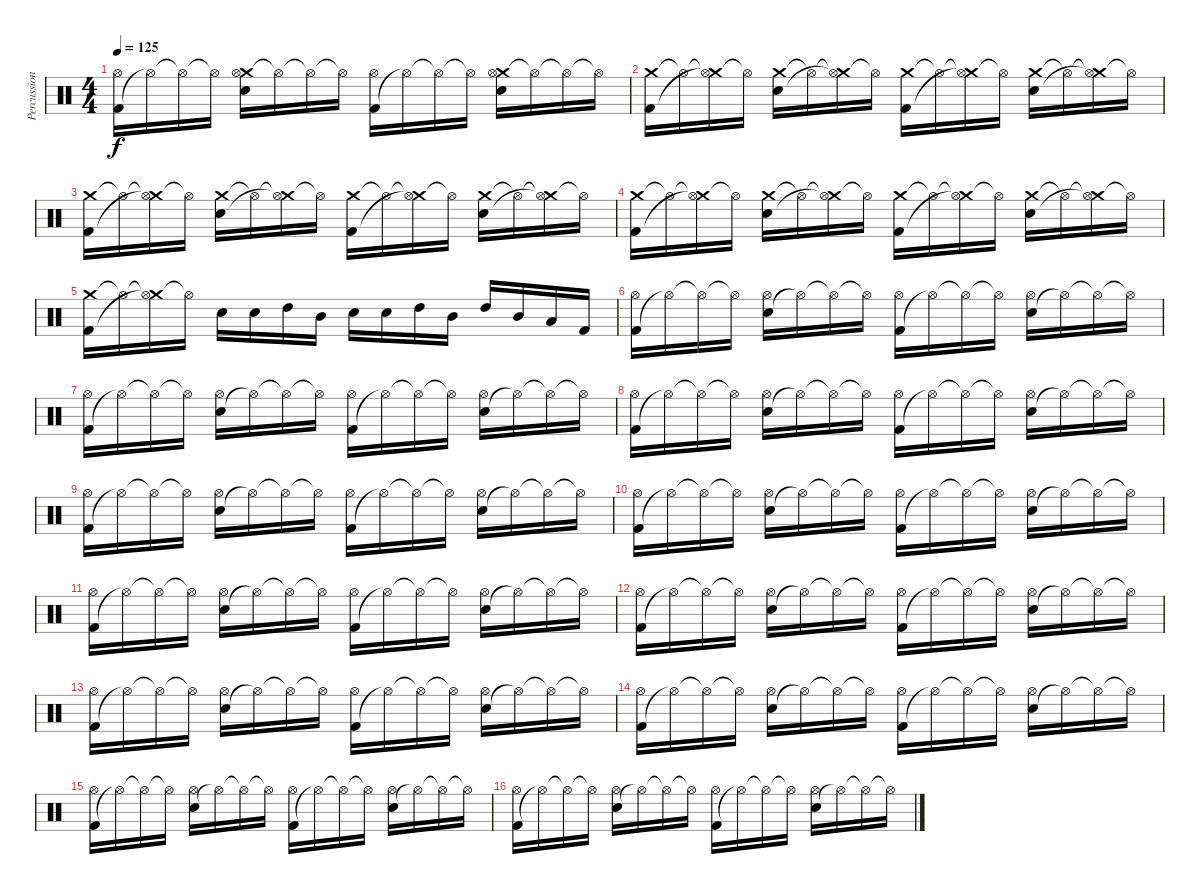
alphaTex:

\track ("Percussions" "Percussion") {instrument percussion}
\staff {score}
\articulation defaults
\ts (4 4)
\tempo 125
\clef neutral
\ks c
("Kick (hit) 2" "Hi-Hat (open)").16{dy f} "Hi-Hat (open)"{t}.16 "Hi-Hat (open)"{t}.16 "Hi-Hat (open)"{t}.16 ("Crash medium (hit)" "Electric Snare (hit)" "Hi-Hat (open)").16 "Hi-Hat (open)"{t}.16 "Hi-Hat (open)"{t}.16 "Hi-Hat (open)"{t}.16 ("Kick (hit) 2" "Hi-Hat (open)").16 "Hi-Hat (open)"{t}.16 "Hi-Hat (open)"{t}.16 "Hi-Hat (open)"{t}.16 ("Crash medium (hit)" "Electric Snare (hit)" "Hi-Hat (open)").16 "Hi-Hat (open)"{t}.16 "Hi-Hat (open)"{t}.16 "Hi-Hat (open)"{t}.16 |
("Crash medium (hit)" "Kick (hit) 2").16 "Hi-Hat (open)"{t}.16 ("Crash medium (hit)"{t} "Hi-Hat (open)"{t}).16 "Hi-Hat (open)"{t}.16 ("Crash medium (hit)" "Electric Snare (hit)").16 "Hi-Hat (open)"{t}.16 ("Crash medium (hit)"{t} "Hi-Hat (open)"{t}).16 "Hi-Hat (open)"{t}.16 ("Crash medium (hit)" "Kick (hit) 2").16 "Hi-Hat (open)"{t}.16 ("Crash medium (hit)"{t} "Hi-Hat (open)"{t}).16 "Hi-Hat (open)"{t}.16 ("Crash medium (hit)" "Electric Snare (hit)").16 "Hi-Hat (open)"{t}.16 ("Crash medium (hit)"{t} "Hi-Hat (open)"{t}).16 "Hi-Hat (open)"{t}.16 |
("Crash medium (hit)" "Kick (hit) 2").16 "Hi-Hat (open)"{t}.16 ("Crash medium (hit)"{t} "Hi-Hat (open)"{t}).16 "Hi-Hat (open)"{t}.16 ("Crash medium (hit)" "Electric Snare (hit)").16 "Hi-Hat (open)"{t}.16 ("Crash medium (hit)"{t} "Hi-Hat (open)"{t}).16 "Hi-Hat (open)"{t}.16 ("Crash medium (hit)" "Kick (hit) 2").16 "Hi-Hat (open)"{t}.16 ("Crash medium (hit)"{t} "Hi-Hat (open)"{t}).16 "Hi-Hat (open)"{t}.16 ("Crash medium (hit)" "Electric Snare (hit)").16 "Hi-Hat (open)"{t}.16 ("Crash medium (hit)"{t} "Hi-Hat (open)"{t}).16 "Hi-Hat (open)"{t}.16 |
("Crash medium (hit)" "Kick (hit) 2").16 "Hi-Hat (open)"{t}.16 ("Crash medium (hit)"{t} "Hi-Hat (open)"{t}).16 "Hi-Hat (open)"{t}.16 ("Crash medium (hit)" "Electric Snare (hit)").16 "Hi-Hat (open)"{t}.16 ("Crash medium (hit)"{t} "Hi-Hat (open)"{t}).16 "Hi-Hat (open)"{t}.16 ("Crash medium (hit)" "Kick (hit) 2").16 "Hi-Hat (open)"{t}.16 ("Crash medium (hit)"{t} "Hi-Hat (open)"{t}).16 "Hi-Hat (open)"{t}.16 ("Crash medium (hit)" "Electric Snare (hit)").16 "Hi-Hat (open)"{t}.16 ("Crash medium (hit)"{t} "Hi-Hat (open)"{t}).16 "Hi-Hat (open)"{t}.16 |
("Crash medium (hit)" "Kick (hit) 2").16 "Hi-Hat (open)"{t}.16 ("Crash medium (hit)"{t} "Hi-Hat (open)"{t}).16 "Hi-Hat (open)"{t}.16 "Electric Snare (hit)".16 "Electric Snare (hit)".16 "High Tom (hit)".16 "Mid Tom (hit)".16 "Electric Snare (hit)".16 "Electric Snare (hit)".16 "High Tom (hit)".16 "Mid Tom (hit)".16 "High Tom (hit)".16 "Mid Tom (hit)".16 "Low Tom (hit)".16 "Kick (hit) 2".16 |
("Kick (hit) 2" "Hi-Hat (open)").16 "Hi-Hat (open)"{t}.16 "Hi-Hat (open)"{t}.16 "Hi-Hat (open)"{t}.16 ("Electric Snare (hit)" "Hi-Hat (open)").16 "Hi-Hat (open)"{t}.16 "Hi-Hat (open)"{t}.16 "Hi-Hat (open)"{t}.16 ("Kick (hit) 2" "Hi-Hat (open)").16 "Hi-Hat (open)"{t}.16 "Hi-Hat (open)"{t}.16 "Hi-Hat (open)"{t}.16 ("Electric Snare (hit)" "Hi-Hat (open)").16 "Hi-Hat (open)"{t}.16 "Hi-Hat (open)"{t}.16 "Hi-Hat (open)"{t}.16 |
("Kick (hit) 2" "Hi-Hat (open)").16 "Hi-Hat (open)"{t}.16 "Hi-Hat (open)"{t}.16 "Hi-Hat (open)"{t}.16 ("Electric Snare (hit)" "Hi-Hat (open)").16 "Hi-Hat (open)"{t}.16 "Hi-Hat (open)"{t}.16 "Hi-Hat (open)"{t}.16 ("Kick (hit) 2" "Hi-Hat (open)").16 "Hi-Hat (open)"{t}.16 "Hi-Hat (open)"{t}.16 "Hi-Hat (open)"{t}.16 ("Electric Snare (hit)" "Hi-Hat (open)").16 "Hi-Hat (open)"{t}.16 "Hi-Hat (open)"{t}.16 "Hi-Hat (open)"{t}.16 |
("Kick (hit) 2" "Hi-Hat (open)").16 "Hi-Hat (open)"{t}.16 "Hi-Hat (open)"{t}.16 "Hi-Hat (open)"{t}.16 ("Electric Snare (hit)" "Hi-Hat (open)").16 "Hi-Hat (open)"{t}.16 "Hi-Hat (open)"{t}.16 "Hi-Hat (open)"{t}.16 ("Kick (hit) 2" "Hi-Hat (open)").16 "Hi-Hat (open)"{t}.16 "Hi-Hat (open)"{t}.16 "Hi-Hat (open)"{t}.16 ("Electric Snare (hit)" "Hi-Hat (open)").16 "Hi-Hat (open)"{t}.16 "Hi-Hat (open)"{t}.16 "Hi-Hat (open)"{t}.16 |
("Kick (hit) 2" "Hi-Hat (open)").16 "Hi-Hat (open)"{t}.16 "Hi-Hat (open)"{t}.16 "Hi-Hat (open)"{t}.16 ("Electric Snare (hit)" "Hi-Hat (open)").16 "Hi-Hat (open)"{t}.16 "Hi-Hat (open)"{t}.16 "Hi-Hat (open)"{t}.16 ("Kick (hit) 2" "Hi-Hat (open)").16 "Hi-Hat (open)"{t}.16 "Hi-Hat (open)"{t}.16 "Hi-Hat (open)"{t}.16 ("Electric Snare (hit)" "Hi-Hat (open)").16 "Hi-Hat (open)"{t}.16 "Hi-Hat (open)"{t}.16 "Hi-Hat (open)"{t}.16 |
("Kick (hit) 2" "Hi-Hat (open)").16 "Hi-Hat (open)"{t}.16 "Hi-Hat (open)"{t}.16 "Hi-Hat (open)"{t}.16 ("Electric Snare (hit)" "Hi-Hat (open)").16 "Hi-Hat (open)"{t}.16 "Hi-Hat (open)"{t}.16 "Hi-Hat (open)"{t}.16 ("Kick (hit) 2" "Hi-Hat (open)").16 "Hi-Hat (open)"{t}.16 "Hi-Hat (open)"{t}.16 "Hi-Hat (open)"{t}.16 ("Electric Snare (hit)" "Hi-Hat (open)").16 "Hi-Hat (open)"{t}.16 "Hi-Hat (open)"{t}.16 "Hi-Hat (open)"{t}.16 |
("Kick (hit) 2" "Hi-Hat (open)").16 "Hi-Hat (open)"{t}.16 "Hi-Hat (open)"{t}.16 "Hi-Hat (open)"{t}.16 ("Electric Snare (hit)" "Hi-Hat (open)").16 "Hi-Hat (open)"{t}.16 "Hi-Hat (open)"{t}.16 "Hi-Hat (open)"{t}.16 ("Kick (hit) 2" "Hi-Hat (open)").16 "Hi-Hat (open)"{t}.16 "Hi-Hat (open)"{t}.16 "Hi-Hat (open)"{t}.16 ("Electric Snare (hit)" "Hi-Hat (open)").16 "Hi-Hat (open)"{t}.16 "Hi-Hat (open)"{t}.16 "Hi-Hat (open)"{t}.16 |
("Kick (hit) 2" "Hi-Hat (open)").16 "Hi-Hat (open)"{t}.16 "Hi-Hat (open)"{t}.16 "Hi-Hat (open)"{t}.16 ("Electric Snare (hit)" "Hi-Hat (open)").16 "Hi-Hat (open)"{t}.16 "Hi-Hat (open)"{t}.16 "Hi-Hat (open)"{t}.16 ("Kick (hit) 2" "Hi-Hat (open)").16 "Hi-Hat (open)"{t}.16 "Hi-Hat (open)"{t}.16 "Hi-Hat (open)"{t}.16 ("Electric Snare (hit)" "Hi-Hat (open)").16 "Hi-Hat (open)"{t}.16 "Hi-Hat (open)"{t}.16 "Hi-Hat (open)"{t}.16 |
("Kick (hit) 2" "Hi-Hat (open)").16 "Hi-Hat (open)"{t}.16 "Hi-Hat (open)"{t}.16 "Hi-Hat (open)"{t}.16 ("Electric Snare (hit)" "Hi-Hat (open)").16 "Hi-Hat (open)"{t}.16 "Hi-Hat (open)"{t}.16 "Hi-Hat (open)"{t}.16 ("Kick (hit) 2" "Hi-Hat (open)").16 "Hi-Hat (open)"{t}.16 "Hi-Hat (open)"{t}.16 "Hi-Hat (open)"{t}.16 ("Electric Snare (hit)" "Hi-Hat (open)").16 "Hi-Hat (open)"{t}.16 "Hi-Hat (open)"{t}.16 "Hi-Hat (open)"{t}.16 |
("Kick (hit) 2" "Hi-Hat (open)").16 "Hi-Hat (open)"{t}.16 "Hi-Hat (open)"{t}.16 "Hi-Hat (open)"{t}.16 ("Electric Snare (hit)" "Hi-Hat (open)").16 "Hi-Hat (open)"{t}.16 "Hi-Hat (open)"{t}.16 "Hi-Hat (open)"{t}.16 ("Kick (hit) 2" "Hi-Hat (open)").16 "Hi-Hat (open)"{t}.16 "Hi-Hat (open)"{t}.16 "Hi-Hat (open)"{t}.16 ("Electric Snare (hit)" "Hi-Hat (open)").16 "Hi-Hat (open)"{t}.16 "Hi-Hat (open)"{t}.16 "Hi-Hat (open)"{t}.16 |
("Kick (hit) 2" "Hi-Hat (open)").16 "Hi-Hat (open)"{t}.16 "Hi-Hat (open)"{t}.16 "Hi-Hat (open)"{t}.16 ("Electric Snare (hit)" "Hi-Hat (open)").16 "Hi-Hat (open)"{t}.16 "Hi-Hat (open)"{t}.16 "Hi-Hat (open)"{t}.16 ("Kick (hit) 2" "Hi-Hat (open)").16 "Hi-Hat (open)"{t}.16 "Hi-Hat (open)"{t}.16 "Hi-Hat (open)"{t}.16 ("Electric Snare (hit)" "Hi-Hat (open)").16 "Hi-Hat (open)"{t}.16 "Hi-Hat (open)"{t}.16 "Hi-Hat (open)"{t}.16 |
("Kick (hit) 2" "Hi-Hat (open)").16 "Hi-Hat (open)"{t}.16 "Hi-Hat (open)"{t}.16 "Hi-Hat (open)"{t}.16 ("Electric Snare (hit)" "Hi-Hat (open)").16 "Hi-Hat (open)"{t}.16 "Hi-Hat (open)"{t}.16 "Hi-Hat (open)"{t}.16 ("Kick (hit) 2" "Hi-Hat (open)").16 "Hi-Hat (open)"{t}.16 "Hi-Hat (open)"{t}.16 "Hi-Hat (open)"{t}.16 ("Electric Snare (hit)" "Hi-Hat (open)").16 "Hi-Hat (open)"{t}.16 "Hi-Hat (open)"{t}.16 "Hi-Hat (open)"{t}.16
